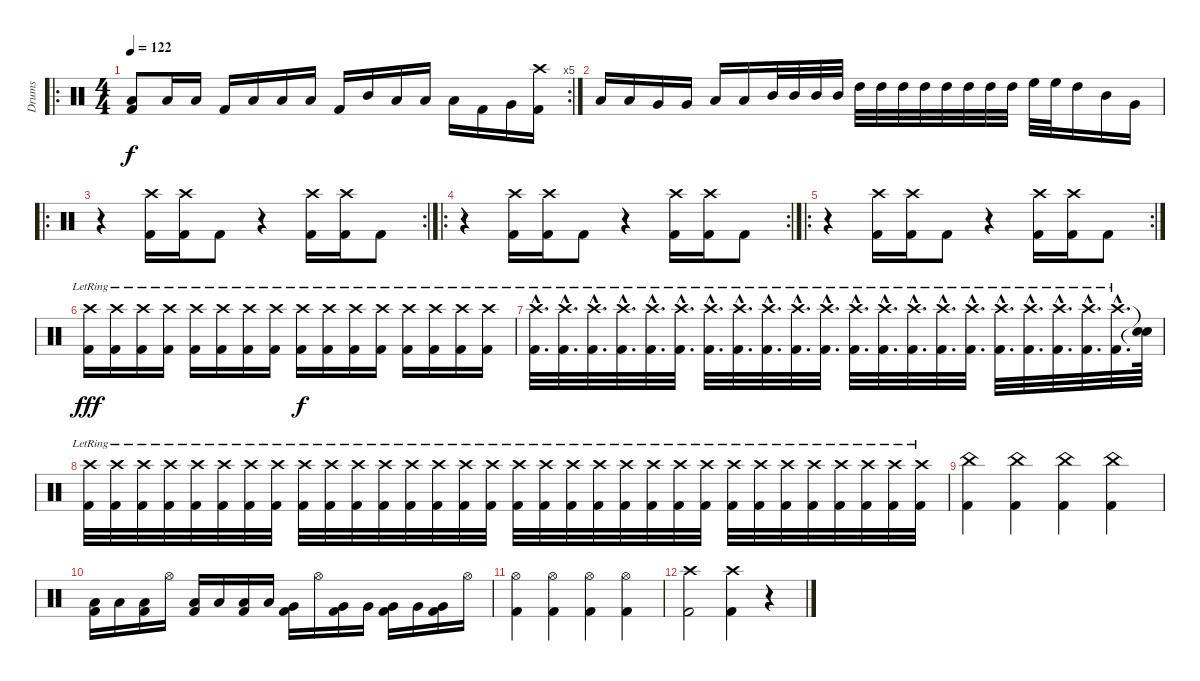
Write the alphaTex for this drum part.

\track ("Drums" "Drums") {instrument percussion}
\staff {score}
\articulation defaults
\ro
\rc 5
\ts (4 4)
\tempo 122
\clef neutral
\ks c
("Low Floor Tom (hit)" "Kick (hit) 2").8{dy f} "Low Floor Tom (hit)".16 "Low Floor Tom (hit)".16 "Kick (hit) 2".16 "Low Tom (hit)".16 "Low Floor Tom (hit)".16 "Low Floor Tom (hit)".16 "Kick (hit) 2".16 "Mid Tom (hit)".16 "Low Tom (hit)".16 "Low Floor Tom (hit)".16 "Low Floor Tom (hit)".16 "Kick (hit) 2".16 "Very Low Tom (hit)".16 ("Crash high (hit)" "Kick (hit) 2").16 |
"Low Floor Tom (hit)".16 "Low Floor Tom (hit)".16 "Very Low Tom (hit)".16 "Very Low Tom (hit)".16 "Low Tom (hit)".16 "Low Tom (hit)".16 "Mid Tom (hit)".32 "Mid Tom (hit)".32 "Mid Tom (hit)".32 "Mid Tom (hit)".32 "High Tom (hit)".32 "High Tom (hit)".32 "High Tom (hit)".32 "High Tom (hit)".32 "High Tom (hit)".32 "High Tom (hit)".32 "High Tom (hit)".32 "High Tom (hit)".32 "High Floor Tom (hit)".32 "High Floor Tom (hit)".32 "High Tom (hit)".16 "Mid Tom (hit)".16 "Very Low Tom (hit)".16 |
\ro
\rc 2
r.4 ("Crash high (hit)" "Kick (hit) 2").16{volume 16} ("Crash high (hit)" "Kick (hit) 2").16 "Kick (hit) 2".8{volume 0} r.4 ("Crash high (hit)" "Kick (hit) 2").16{volume 16} ("Crash high (hit)" "Kick (hit) 2").16 "Kick (hit) 2".8{volume 0} |
\ro
\rc 2
r.4 ("Crash high (hit)" "Kick (hit) 2").16{volume 16} ("Crash high (hit)" "Kick (hit) 2").16 "Kick (hit) 2".8{volume 0} r.4 ("Crash high (hit)" "Kick (hit) 2").16{volume 16} ("Crash high (hit)" "Kick (hit) 2").16 "Kick (hit) 2".8{volume 0} |
\ro
\rc 2
r.4 ("Crash high (hit)" "Kick (hit) 2").16{volume 16} ("Crash high (hit)" "Kick (hit) 2").16 "Kick (hit) 2".8{volume 0} r.4 ("Crash high (hit)" "Kick (hit) 2").16{volume 16} ("Crash high (hit)" "Kick (hit) 2").16 "Kick (hit) 2".8{volume 0} |
("Crash high (hit)"{lr} "Kick (hit) 2").16{dy fff volume 16} ("Crash high (hit)"{lr} "Kick (hit) 2").16 ("Crash high (hit)"{lr} "Kick (hit) 2").16 ("Crash high (hit)"{lr} "Kick (hit) 2").16 ("Crash high (hit)"{lr} "Kick (hit) 2").16 ("Crash high (hit)"{lr} "Kick (hit) 2").16 ("Crash high (hit)"{lr} "Kick (hit) 2").16 ("Crash high (hit)"{lr} "Kick (hit) 2").16 ("Crash high (hit)"{lr} "Kick (hit) 2").16{dy f} ("Crash high (hit)"{lr} "Kick (hit) 2").16 ("Crash high (hit)"{lr} "Kick (hit) 2").16 ("Crash high (hit)"{lr} "Kick (hit) 2").16 ("Crash high (hit)"{lr} "Kick (hit) 2").16 ("Crash high (hit)"{lr} "Kick (hit) 2").16 ("Crash high (hit)"{lr} "Kick (hit) 2").16 ("Crash high (hit)"{lr} "Kick (hit) 2").16 |
("Crash high (hit)"{hac lr} "Kick (hit) 2"{hac}).32{d} ("Crash high (hit)"{hac lr} "Kick (hit) 2"{hac}).32{d} ("Crash high (hit)"{hac lr} "Kick (hit) 2"{hac}).32{d} ("Crash high (hit)"{hac lr} "Kick (hit) 2"{hac}).32{d} ("Crash high (hit)"{hac lr} "Kick (hit) 2"{hac}).32{d} ("Crash high (hit)"{hac lr} "Kick (hit) 2"{hac}).32{d} ("Crash high (hit)"{hac lr} "Kick (hit) 2"{hac}).32{d} ("Crash high (hit)"{hac lr} "Kick (hit) 2"{hac}).32{d} ("Crash high (hit)"{hac lr} "Kick (hit) 2"{hac}).32{d} ("Crash high (hit)"{hac lr} "Kick (hit) 2"{hac}).32{d} ("Crash high (hit)"{hac lr} "Kick (hit) 2"{hac}).32{d} ("Crash high (hit)"{hac lr} "Kick (hit) 2"{hac}).32{d} ("Crash high (hit)"{hac lr} "Kick (hit) 2"{hac}).32{d} ("Crash high (hit)"{hac lr} "Kick (hit) 2"{hac}).32{d} ("Crash high (hit)"{hac lr} "Kick (hit) 2"{hac}).32{d} ("Crash high (hit)"{hac lr} "Kick (hit) 2"{hac}).32{d} ("Crash high (hit)"{hac lr} "Kick (hit) 2"{hac}).32{d} ("Crash high (hit)"{hac lr} "Kick (hit) 2"{hac}).32{d} ("Crash high (hit)"{hac lr} "Kick (hit) 2"{hac}).32{d} ("Crash high (hit)"{hac lr} "Kick (hit) 2"{hac}).32{d} ("Crash high (hit)"{hac lr} "Kick (hit) 2"{hac}).32{d} ("Snare (hit)"{t} "Snare (hit)"{t}).64 |
("Crash high (hit)"{lr} "Kick (hit) 2").32 ("Crash high (hit)"{lr} "Kick (hit) 2").32 ("Crash high (hit)"{lr} "Kick (hit) 2").32 ("Crash high (hit)"{lr} "Kick (hit) 2").32 ("Crash high (hit)"{lr} "Kick (hit) 2").32 ("Crash high (hit)"{lr} "Kick (hit) 2").32 ("Crash high (hit)"{lr} "Kick (hit) 2").32 ("Crash high (hit)"{lr} "Kick (hit) 2").32 ("Crash high (hit)"{lr} "Kick (hit) 2").32 ("Crash high (hit)"{lr} "Kick (hit) 2").32 ("Crash high (hit)"{lr} "Kick (hit) 2").32 ("Crash high (hit)"{lr} "Kick (hit) 2").32 ("Crash high (hit)"{lr} "Kick (hit) 2").32 ("Crash high (hit)"{lr} "Kick (hit) 2").32 ("Crash high (hit)"{lr} "Kick (hit) 2").32 ("Crash high (hit)"{lr} "Kick (hit) 2").32 ("Crash high (hit)"{lr} "Kick (hit) 2").32 ("Crash high (hit)"{lr} "Kick (hit) 2").32 ("Crash high (hit)"{lr} "Kick (hit) 2").32 ("Crash high (hit)"{lr} "Kick (hit) 2").32 ("Crash high (hit)"{lr} "Kick (hit) 2").32 ("Crash high (hit)"{lr} "Kick (hit) 2").32 ("Crash high (hit)"{lr} "Kick (hit) 2").32 ("Crash high (hit)"{lr} "Kick (hit) 2").32 ("Crash high (hit)"{lr} "Kick (hit) 2").32 ("Crash high (hit)"{lr} "Kick (hit) 2").32 ("Crash high (hit)"{lr} "Kick (hit) 2").32 ("Crash high (hit)"{lr} "Kick (hit) 2").32 ("Crash high (hit)"{lr} "Kick (hit) 2").32 ("Crash high (hit)"{lr} "Kick (hit) 2").32 ("Crash high (hit)"{lr} "Kick (hit) 2").32 ("Crash high (hit)"{lr} "Kick (hit) 2").32 |
("China (hit)" "Kick (hit) 2").4 ("China (hit)" "Kick (hit) 2").4 ("China (hit)" "Kick (hit) 2").4 ("China (hit)" "Kick (hit) 2").4 |
("Low Floor Tom (hit)" "Kick (hit) 2").16 "Low Floor Tom (hit)".16 ("Low Floor Tom (hit)" "Kick (hit) 2").16 "Hi-Hat (open)".16 ("Low Floor Tom (hit)" "Kick (hit) 2").16 "Low Floor Tom (hit)".16 ("Low Floor Tom (hit)" "Kick (hit) 2").16 "Low Floor Tom (hit)".16 ("Very Low Tom (hit)" "Kick (hit) 2").16 "Hi-Hat (open)".16 ("Very Low Tom (hit)" "Kick (hit) 2").16 "Very Low Tom (hit)".16 ("Very Low Tom (hit)" "Kick (hit) 2").16 "Very Low Tom (hit)".16 ("Very Low Tom (hit)" "Kick (hit) 2").16 "Hi-Hat (open)".16 |
("Hi-Hat (open)" "Kick (hit) 2").4 ("Hi-Hat (open)" "Kick (hit) 2").4 ("Hi-Hat (open)" "Kick (hit) 2").4 ("Hi-Hat (open)" "Kick (hit) 2").4 |
("Crash high (hit)" "Kick (hit) 2").2 ("Crash high (hit)" "Kick (hit) 2").4 r.4
